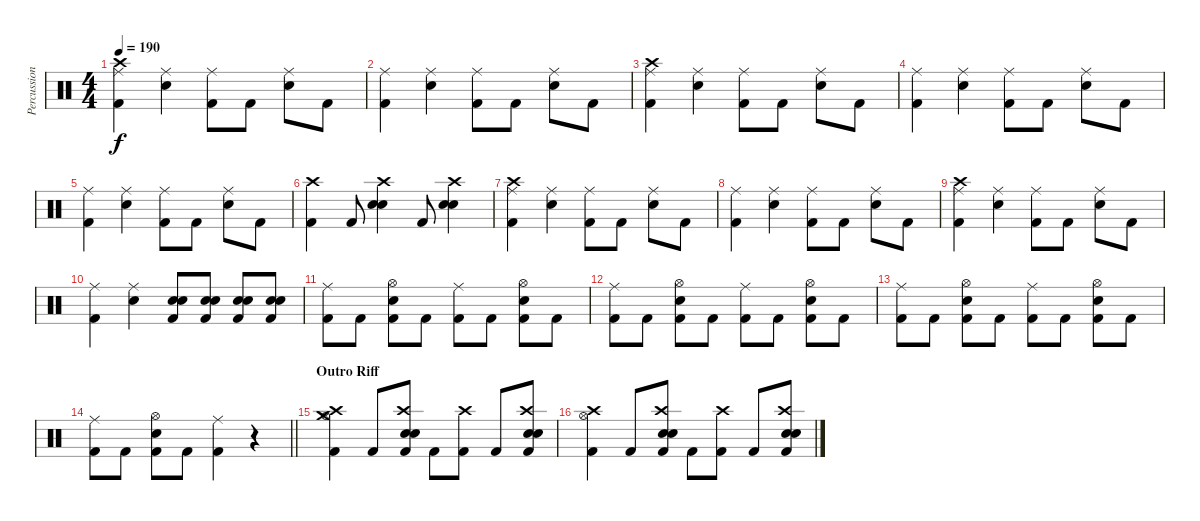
\track ("Percussion" "Percussion") {instrument percussion}
\staff {score}
\articulation defaults
\ts (4 4)
\tempo 190
\clef neutral
\ks c
("Ride (middle)" "Kick (hit) 2" "Crash high (hit)").4{dy f} ("Ride (middle)" "Snare (hit) 2").4 ("Ride (middle)" "Kick (hit) 2").8 "Kick (hit) 2".8 ("Ride (middle)" "Snare (hit) 2").8 "Kick (hit) 2".8 |
("Ride (middle)" "Kick (hit) 2").4 ("Ride (middle)" "Snare (hit) 2").4 ("Ride (middle)" "Kick (hit) 2").8 "Kick (hit) 2".8 ("Ride (middle)" "Snare (hit) 2").8 "Kick (hit) 2".8 |
("Ride (middle)" "Kick (hit) 2" "Crash high (hit)").4 ("Ride (middle)" "Snare (hit) 2").4 ("Ride (middle)" "Kick (hit) 2").8 "Kick (hit) 2".8 ("Ride (middle)" "Snare (hit) 2").8 "Kick (hit) 2".8 |
("Ride (middle)" "Kick (hit) 2").4 ("Ride (middle)" "Snare (hit) 2").4 ("Ride (middle)" "Kick (hit) 2").8 "Kick (hit) 2".8 ("Ride (middle)" "Snare (hit) 2").8 "Kick (hit) 2".8 |
("Ride (middle)" "Kick (hit) 2").4 ("Ride (middle)" "Snare (hit) 2").4 ("Ride (middle)" "Kick (hit) 2").8 "Kick (hit) 2".8 ("Ride (middle)" "Snare (hit) 2").8 "Kick (hit) 2".8 |
("Kick (hit) 2" "Crash high (hit)").4 "Kick (hit) 2".8 ("Electric Snare (hit)" "Snare (hit) 2" "Crash high (hit)").4 "Kick (hit) 2".8 ("Electric Snare (hit)" "Snare (hit) 2" "Crash high (hit)").4 |
("Ride (middle)" "Kick (hit) 2" "Crash high (hit)").4 ("Ride (middle)" "Snare (hit) 2").4 ("Ride (middle)" "Kick (hit) 2").8 "Kick (hit) 2".8 ("Ride (middle)" "Snare (hit) 2").8 "Kick (hit) 2".8 |
("Ride (middle)" "Kick (hit) 2").4 ("Ride (middle)" "Snare (hit) 2").4 ("Ride (middle)" "Kick (hit) 2").8 "Kick (hit) 2".8 ("Ride (middle)" "Snare (hit) 2").8 "Kick (hit) 2".8 |
("Ride (middle)" "Kick (hit) 2" "Crash high (hit)").4 ("Ride (middle)" "Snare (hit) 2").4 ("Ride (middle)" "Kick (hit) 2").8 "Kick (hit) 2".8 ("Ride (middle)" "Snare (hit) 2").8 "Kick (hit) 2".8 |
("Ride (middle)" "Kick (hit) 2").4 ("Ride (middle)" "Snare (hit) 2").4 ("Electric Snare (hit)" "Snare (hit) 2" "Kick (hit) 2").8 ("Electric Snare (hit)" "Snare (hit) 2" "Kick (hit) 2").8 ("Electric Snare (hit)" "Snare (hit) 2" "Kick (hit) 2").8 ("Electric Snare (hit)" "Snare (hit) 2" "Kick (hit) 2").8 |
("Ride (middle)" "Kick (hit) 2").8 "Kick (hit) 2".8 ("Hi-Hat (open)" "Snare (hit) 2" "Kick (hit) 2").8 "Kick (hit) 2".8 ("Ride (middle)" "Kick (hit) 2").8 "Kick (hit) 2".8 ("Hi-Hat (open)" "Snare (hit) 2" "Kick (hit) 2").8 "Kick (hit) 2".8 |
("Ride (middle)" "Kick (hit) 2").8 "Kick (hit) 2".8 ("Hi-Hat (open)" "Snare (hit) 2" "Kick (hit) 2").8 "Kick (hit) 2".8 ("Ride (middle)" "Kick (hit) 2").8 "Kick (hit) 2".8 ("Hi-Hat (open)" "Snare (hit) 2" "Kick (hit) 2").8 "Kick (hit) 2".8 |
("Ride (middle)" "Kick (hit) 2").8 "Kick (hit) 2".8 ("Hi-Hat (open)" "Snare (hit) 2" "Kick (hit) 2").8 "Kick (hit) 2".8 ("Ride (middle)" "Kick (hit) 2").8 "Kick (hit) 2".8 ("Hi-Hat (open)" "Snare (hit) 2" "Kick (hit) 2").8 "Kick (hit) 2".8 |
\barLineRight lightlight
("Ride (middle)" "Kick (hit) 2").8 "Kick (hit) 2".8 ("Hi-Hat (open)" "Snare (hit) 2" "Kick (hit) 2").8 "Kick (hit) 2".8 ("Ride (middle)" "Kick (hit) 2").4 r.4 |
\section ("" "Outro Riff")
("Hi-Hat (open)" "Kick (hit) 2" "Crash medium (hit)" "Crash high (hit)").4 "Kick (hit) 2".8 ("Electric Snare (hit)" "Snare (hit) 2" "Kick (hit) 2" "Crash high (hit)").8 "Kick (hit) 2".8 ("Kick (hit) 2" "Crash high (hit)").8 "Kick (hit) 2".8 ("Electric Snare (hit)" "Snare (hit) 2" "Kick (hit) 2" "Crash high (hit)").8 |
("Hi-Hat (open)" "Kick (hit) 2" "Crash high (hit)").4 "Kick (hit) 2".8 ("Electric Snare (hit)" "Snare (hit) 2" "Kick (hit) 2" "Crash high (hit)").8 "Kick (hit) 2".8 ("Kick (hit) 2" "Crash high (hit)").8 "Kick (hit) 2".8 ("Electric Snare (hit)" "Snare (hit) 2" "Kick (hit) 2" "Crash high (hit)").8
